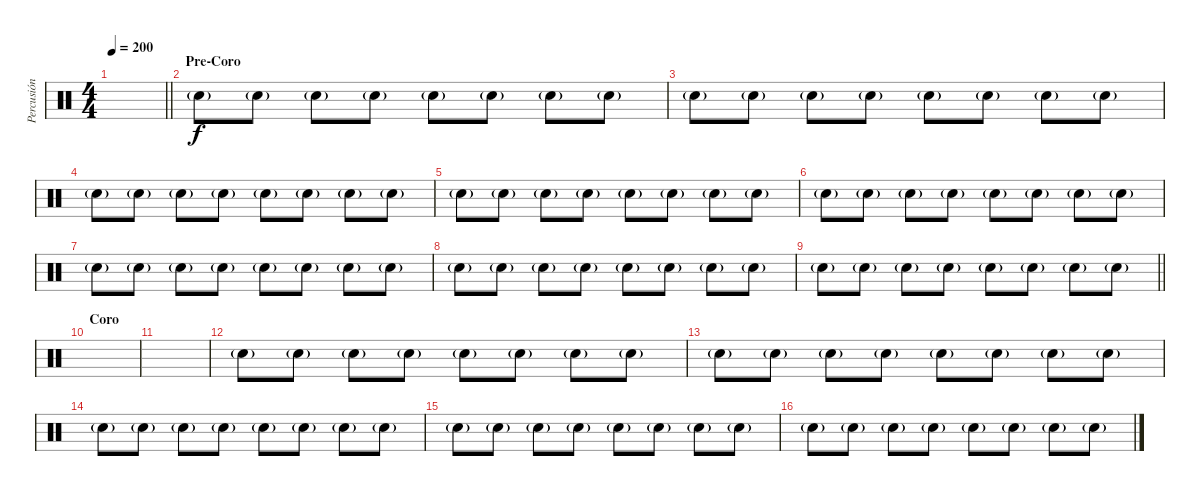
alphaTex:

\track ("Percusión" "Percusión") {instrument percussion}
\staff {score}
\articulation defaults
\ts (4 4)
\tempo 200
\clef neutral
\barLineRight lightlight
\ks c
|
\section ("" "Pre-Coro")
"Hand Clap (hit)"{g}.8 "Hand Clap (hit)"{g}.8 "Hand Clap (hit)"{g}.8 "Hand Clap (hit)"{g}.8 "Hand Clap (hit)"{g}.8 "Hand Clap (hit)"{g}.8 "Hand Clap (hit)"{g}.8 "Hand Clap (hit)"{g}.8 |
"Hand Clap (hit)"{g}.8 "Hand Clap (hit)"{g}.8 "Hand Clap (hit)"{g}.8 "Hand Clap (hit)"{g}.8 "Hand Clap (hit)"{g}.8 "Hand Clap (hit)"{g}.8 "Hand Clap (hit)"{g}.8 "Hand Clap (hit)"{g}.8 |
"Hand Clap (hit)"{g}.8 "Hand Clap (hit)"{g}.8 "Hand Clap (hit)"{g}.8 "Hand Clap (hit)"{g}.8 "Hand Clap (hit)"{g}.8 "Hand Clap (hit)"{g}.8 "Hand Clap (hit)"{g}.8 "Hand Clap (hit)"{g}.8 |
"Hand Clap (hit)"{g}.8 "Hand Clap (hit)"{g}.8 "Hand Clap (hit)"{g}.8 "Hand Clap (hit)"{g}.8 "Hand Clap (hit)"{g}.8 "Hand Clap (hit)"{g}.8 "Hand Clap (hit)"{g}.8 "Hand Clap (hit)"{g}.8 |
"Hand Clap (hit)"{g}.8 "Hand Clap (hit)"{g}.8 "Hand Clap (hit)"{g}.8 "Hand Clap (hit)"{g}.8 "Hand Clap (hit)"{g}.8 "Hand Clap (hit)"{g}.8 "Hand Clap (hit)"{g}.8 "Hand Clap (hit)"{g}.8 |
"Hand Clap (hit)"{g}.8 "Hand Clap (hit)"{g}.8 "Hand Clap (hit)"{g}.8 "Hand Clap (hit)"{g}.8 "Hand Clap (hit)"{g}.8 "Hand Clap (hit)"{g}.8 "Hand Clap (hit)"{g}.8 "Hand Clap (hit)"{g}.8 |
"Hand Clap (hit)"{g}.8 "Hand Clap (hit)"{g}.8 "Hand Clap (hit)"{g}.8 "Hand Clap (hit)"{g}.8 "Hand Clap (hit)"{g}.8 "Hand Clap (hit)"{g}.8 "Hand Clap (hit)"{g}.8 "Hand Clap (hit)"{g}.8 |
\barLineRight lightlight "Hand Clap (hit)"{g}.8 "Hand Clap (hit)"{g}.8 "Hand Clap (hit)"{g}.8 "Hand Clap (hit)"{g}.8 "Hand Clap (hit)"{g}.8 "Hand Clap (hit)"{g}.8 "Hand Clap (hit)"{g}.8 "Hand Clap (hit)"{g}.8
|
\section ("" "Coro")
|
|
"Hand Clap (hit)"{g}.8 "Hand Clap (hit)"{g}.8 "Hand Clap (hit)"{g}.8 "Hand Clap (hit)"{g}.8 "Hand Clap (hit)"{g}.8 "Hand Clap (hit)"{g}.8 "Hand Clap (hit)"{g}.8 "Hand Clap (hit)"{g}.8 |
"Hand Clap (hit)"{g}.8 "Hand Clap (hit)"{g}.8 "Hand Clap (hit)"{g}.8 "Hand Clap (hit)"{g}.8 "Hand Clap (hit)"{g}.8 "Hand Clap (hit)"{g}.8 "Hand Clap (hit)"{g}.8 "Hand Clap (hit)"{g}.8 |
"Hand Clap (hit)"{g}.8 "Hand Clap (hit)"{g}.8 "Hand Clap (hit)"{g}.8 "Hand Clap (hit)"{g}.8 "Hand Clap (hit)"{g}.8 "Hand Clap (hit)"{g}.8 "Hand Clap (hit)"{g}.8 "Hand Clap (hit)"{g}.8 |
"Hand Clap (hit)"{g}.8 "Hand Clap (hit)"{g}.8 "Hand Clap (hit)"{g}.8 "Hand Clap (hit)"{g}.8 "Hand Clap (hit)"{g}.8 "Hand Clap (hit)"{g}.8 "Hand Clap (hit)"{g}.8 "Hand Clap (hit)"{g}.8 |
"Hand Clap (hit)"{g}.8 "Hand Clap (hit)"{g}.8 "Hand Clap (hit)"{g}.8 "Hand Clap (hit)"{g}.8 "Hand Clap (hit)"{g}.8 "Hand Clap (hit)"{g}.8 "Hand Clap (hit)"{g}.8 "Hand Clap (hit)"{g}.8
